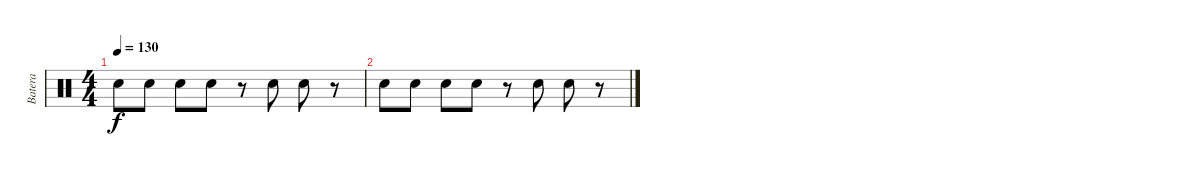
\track ("Batera" "Batera") {instrument percussion}
\staff {score}
\articulation defaults
\ts (4 4)
\tempo 130
\clef neutral
\ks c "Snare (hit) 2".8{dy f} "Snare (hit) 2".8 "Snare (hit) 2".8 "Snare (hit) 2".8
r.8 "Snare (hit) 2".8 "Snare (hit) 2".8 r.8 |
"Snare (hit) 2".8 "Snare (hit) 2".8 "Snare (hit) 2".8 "Snare (hit) 2".8 r.8 "Snare (hit) 2".8 "Snare (hit) 2".8 r.8
